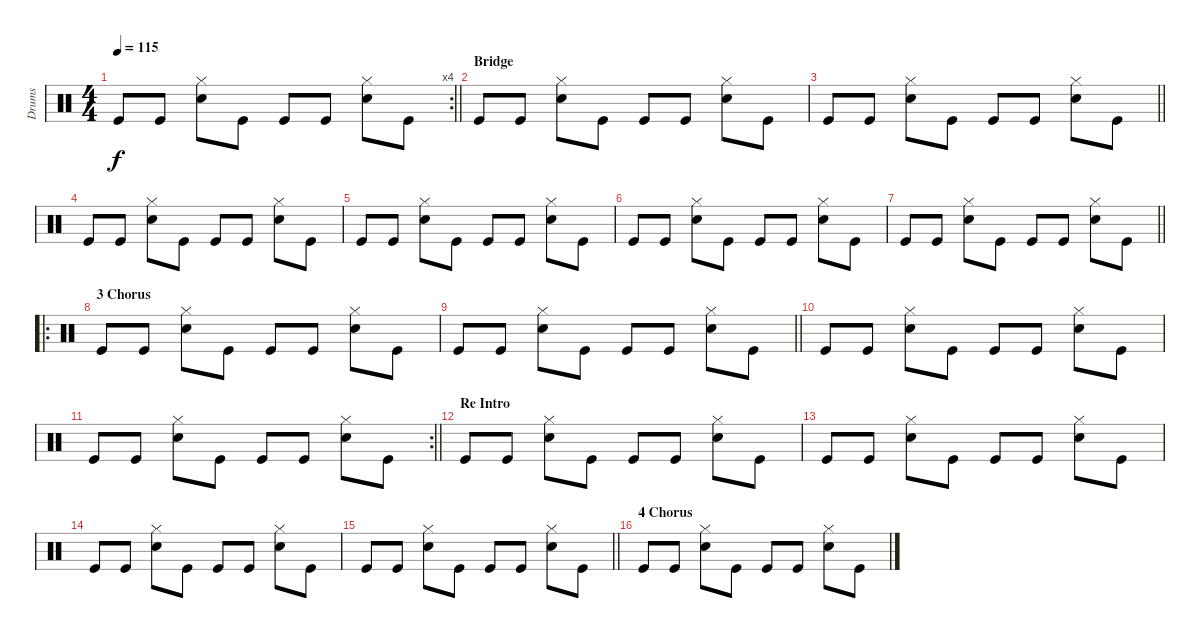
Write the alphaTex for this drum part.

\track ("Drums" "Drums") {instrument percussion}
\staff
\articulation defaults
\rc 4
\ts (4 4)
\tempo 115
\clef neutral
\barLineRight lightlight
\ks c "Kick (hit)".8{dy f} "Kick (hit)".8
("Hi-Hat (closed)" "Snare (hit) 2").8 "Kick (hit)".8 "Kick (hit)".8 "Kick (hit)".8 ("Hi-Hat (closed)" "Snare (hit) 2").8 "Kick (hit)".8 |
\section ("" "Bridge")
"Kick (hit)".8 "Kick (hit)".8 ("Hi-Hat (closed)" "Snare (hit) 2").8 "Kick (hit)".8 "Kick (hit)".8 "Kick (hit)".8 ("Hi-Hat (closed)" "Snare (hit) 2").8 "Kick (hit)".8 |
\barLineRight lightlight "Kick (hit)".8 "Kick (hit)".8
("Hi-Hat (closed)" "Snare (hit) 2").8 "Kick (hit)".8 "Kick (hit)".8 "Kick (hit)".8 ("Hi-Hat (closed)" "Snare (hit) 2").8 "Kick (hit)".8 |
"Kick (hit)".8 "Kick (hit)".8 ("Hi-Hat (closed)" "Snare (hit) 2").8 "Kick (hit)".8 "Kick (hit)".8 "Kick (hit)".8 ("Hi-Hat (closed)" "Snare (hit) 2").8 "Kick (hit)".8 |
"Kick (hit)".8 "Kick (hit)".8 ("Hi-Hat (closed)" "Snare (hit) 2").8 "Kick (hit)".8 "Kick (hit)".8 "Kick (hit)".8 ("Hi-Hat (closed)" "Snare (hit) 2").8 "Kick (hit)".8 |
"Kick (hit)".8 "Kick (hit)".8 ("Hi-Hat (closed)" "Snare (hit) 2").8 "Kick (hit)".8 "Kick (hit)".8 "Kick (hit)".8 ("Hi-Hat (closed)" "Snare (hit) 2").8 "Kick (hit)".8 |
\barLineRight lightlight "Kick (hit)".8 "Kick (hit)".8
("Hi-Hat (closed)" "Snare (hit) 2").8 "Kick (hit)".8 "Kick (hit)".8 "Kick (hit)".8 ("Hi-Hat (closed)" "Snare (hit) 2").8 "Kick (hit)".8 |
\ro
\section ("" "3 Chorus")
"Kick (hit)".8 "Kick (hit)".8 ("Hi-Hat (closed)" "Snare (hit) 2").8 "Kick (hit)".8 "Kick (hit)".8 "Kick (hit)".8 ("Hi-Hat (closed)" "Snare (hit) 2").8 "Kick (hit)".8 |
\barLineRight lightlight "Kick (hit)".8 "Kick (hit)".8
("Hi-Hat (closed)" "Snare (hit) 2").8 "Kick (hit)".8 "Kick (hit)".8 "Kick (hit)".8 ("Hi-Hat (closed)" "Snare (hit) 2").8 "Kick (hit)".8 |
"Kick (hit)".8 "Kick (hit)".8 ("Hi-Hat (closed)" "Snare (hit) 2").8 "Kick (hit)".8 "Kick (hit)".8 "Kick (hit)".8 ("Hi-Hat (closed)" "Snare (hit) 2").8 "Kick (hit)".8 |
\rc 2
\barLineRight lightlight "Kick (hit)".8 "Kick (hit)".8
("Hi-Hat (closed)" "Snare (hit) 2").8 "Kick (hit)".8 "Kick (hit)".8 "Kick (hit)".8 ("Hi-Hat (closed)" "Snare (hit) 2").8 "Kick (hit)".8 |
\section ("" "Re Intro")
"Kick (hit)".8 "Kick (hit)".8 ("Hi-Hat (closed)" "Snare (hit) 2").8 "Kick (hit)".8 "Kick (hit)".8 "Kick (hit)".8 ("Hi-Hat (closed)" "Snare (hit) 2").8 "Kick (hit)".8 |
"Kick (hit)".8 "Kick (hit)".8 ("Hi-Hat (closed)" "Snare (hit) 2").8 "Kick (hit)".8 "Kick (hit)".8 "Kick (hit)".8 ("Hi-Hat (closed)" "Snare (hit) 2").8 "Kick (hit)".8 |
"Kick (hit)".8 "Kick (hit)".8 ("Hi-Hat (closed)" "Snare (hit) 2").8 "Kick (hit)".8 "Kick (hit)".8 "Kick (hit)".8 ("Hi-Hat (closed)" "Snare (hit) 2").8 "Kick (hit)".8 |
\barLineRight lightlight "Kick (hit)".8 "Kick (hit)".8
("Hi-Hat (closed)" "Snare (hit) 2").8 "Kick (hit)".8 "Kick (hit)".8 "Kick (hit)".8 ("Hi-Hat (closed)" "Snare (hit) 2").8 "Kick (hit)".8 |
\section ("" "4 Chorus")
"Kick (hit)".8 "Kick (hit)".8 ("Hi-Hat (closed)" "Snare (hit) 2").8 "Kick (hit)".8 "Kick (hit)".8 "Kick (hit)".8 ("Hi-Hat (closed)" "Snare (hit) 2").8 "Kick (hit)".8
